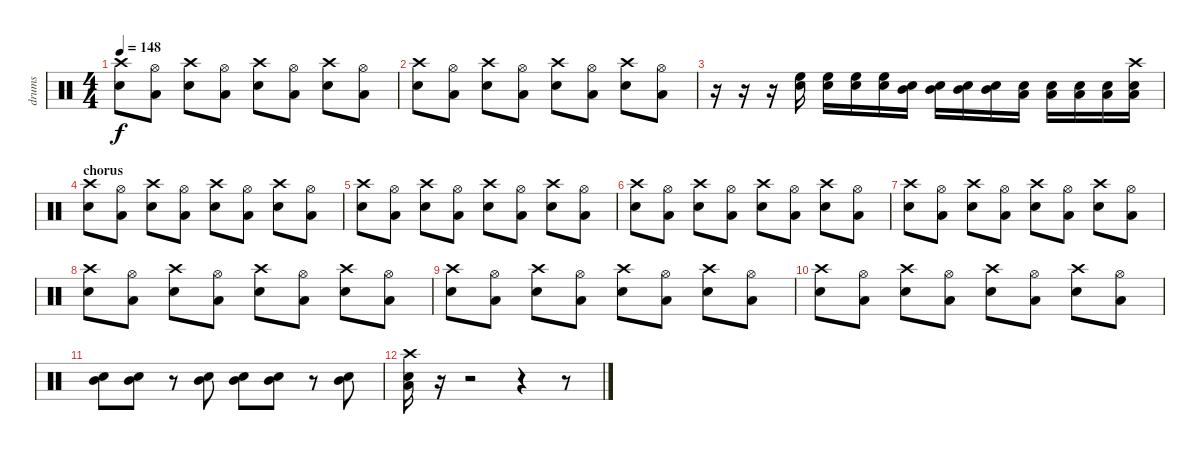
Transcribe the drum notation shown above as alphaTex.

\track ("drums" "drums") {instrument percussion}
\staff {score}
\articulation defaults
\ts (4 4)
\tempo 148
\clef neutral
\ks c
("Crash high (hit)" "Snare (hit) 2").8{dy f} ("Hi-Hat (open)" "Low Tom (hit)").8 ("Crash high (hit)" "Snare (hit) 2").8 ("Hi-Hat (open)" "Low Tom (hit)").8 ("Crash high (hit)" "Snare (hit) 2").8 ("Hi-Hat (open)" "Low Tom (hit)").8 ("Crash high (hit)" "Snare (hit) 2").8 ("Hi-Hat (open)" "Low Tom (hit)").8 |
("Crash high (hit)" "Snare (hit) 2").8 ("Hi-Hat (open)" "Low Tom (hit)").8 ("Crash high (hit)" "Snare (hit) 2").8 ("Hi-Hat (open)" "Low Tom (hit)").8 ("Crash high (hit)" "Snare (hit) 2").8 ("Hi-Hat (open)" "Low Tom (hit)").8 ("Crash high (hit)" "Snare (hit) 2").8 ("Hi-Hat (open)" "Low Tom (hit)").8 |
r.16 r.16 r.16 ("Snare (hit) 2" "High Floor Tom (hit)").16 ("Snare (hit) 2" "High Floor Tom (hit)").16 ("Snare (hit) 2" "High Floor Tom (hit)").16 ("Snare (hit) 2" "High Floor Tom (hit)").16 ("Snare (hit) 2" "Mid Tom (hit)").16 ("Snare (hit) 2" "Mid Tom (hit)").16 ("Snare (hit) 2" "Mid Tom (hit)").16 ("Snare (hit) 2" "Mid Tom (hit)").16 ("Snare (hit) 2" "Low Tom (hit)").16 ("Snare (hit) 2" "Low Tom (hit)").16 ("Snare (hit) 2" "Low Tom (hit)").16 ("Snare (hit) 2" "Low Tom (hit)").16 ("Crash high (hit)" "Snare (hit) 2" "Low Floor Tom (hit)").16 |
\section ("" "chorus")
("Crash high (hit)" "Snare (hit) 2").8 ("Hi-Hat (open)" "Low Tom (hit)").8 ("Crash high (hit)" "Snare (hit) 2").8 ("Hi-Hat (open)" "Low Tom (hit)").8 ("Crash high (hit)" "Snare (hit) 2").8 ("Hi-Hat (open)" "Low Tom (hit)").8 ("Crash high (hit)" "Snare (hit) 2").8 ("Hi-Hat (open)" "Low Tom (hit)").8 |
("Crash high (hit)" "Snare (hit) 2").8 ("Hi-Hat (open)" "Low Tom (hit)").8 ("Crash high (hit)" "Snare (hit) 2").8 ("Hi-Hat (open)" "Low Tom (hit)").8 ("Crash high (hit)" "Snare (hit) 2").8 ("Hi-Hat (open)" "Low Tom (hit)").8 ("Crash high (hit)" "Snare (hit) 2").8 ("Hi-Hat (open)" "Low Tom (hit)").8 |
("Crash high (hit)" "Snare (hit) 2").8 ("Hi-Hat (open)" "Low Tom (hit)").8 ("Crash high (hit)" "Snare (hit) 2").8 ("Hi-Hat (open)" "Low Tom (hit)").8 ("Crash high (hit)" "Snare (hit) 2").8 ("Hi-Hat (open)" "Low Tom (hit)").8 ("Crash high (hit)" "Snare (hit) 2").8 ("Hi-Hat (open)" "Low Tom (hit)").8 |
("Crash high (hit)" "Snare (hit) 2").8 ("Hi-Hat (open)" "Low Tom (hit)").8 ("Crash high (hit)" "Snare (hit) 2").8 ("Hi-Hat (open)" "Low Tom (hit)").8 ("Crash high (hit)" "Snare (hit) 2").8 ("Hi-Hat (open)" "Low Tom (hit)").8 ("Crash high (hit)" "Snare (hit) 2").8 ("Hi-Hat (open)" "Low Tom (hit)").8 |
("Crash high (hit)" "Snare (hit) 2").8 ("Hi-Hat (open)" "Low Tom (hit)").8 ("Crash high (hit)" "Snare (hit) 2").8 ("Hi-Hat (open)" "Low Tom (hit)").8 ("Crash high (hit)" "Snare (hit) 2").8 ("Hi-Hat (open)" "Low Tom (hit)").8 ("Crash high (hit)" "Snare (hit) 2").8 ("Hi-Hat (open)" "Low Tom (hit)").8 |
("Crash high (hit)" "Snare (hit) 2").8 ("Hi-Hat (open)" "Low Tom (hit)").8 ("Crash high (hit)" "Snare (hit) 2").8 ("Hi-Hat (open)" "Low Tom (hit)").8 ("Crash high (hit)" "Snare (hit) 2").8 ("Hi-Hat (open)" "Low Tom (hit)").8 ("Crash high (hit)" "Snare (hit) 2").8 ("Hi-Hat (open)" "Low Tom (hit)").8 |
("Crash high (hit)" "Snare (hit) 2").8 ("Hi-Hat (open)" "Low Tom (hit)").8 ("Crash high (hit)" "Snare (hit) 2").8 ("Hi-Hat (open)" "Low Tom (hit)").8 ("Crash high (hit)" "Snare (hit) 2").8 ("Hi-Hat (open)" "Low Tom (hit)").8 ("Crash high (hit)" "Snare (hit) 2").8 ("Hi-Hat (open)" "Low Tom (hit)").8 |
("Snare (hit) 2" "Mid Tom (hit)").8 ("Snare (hit) 2" "Mid Tom (hit)").8 r.8 ("Mid Tom (hit)" "Snare (hit) 2").8 ("Mid Tom (hit)" "Snare (hit) 2").8 ("Mid Tom (hit)" "Snare (hit) 2").8 r.8 ("Snare (hit) 2" "Mid Tom (hit)").8 |
("Crash high (hit)" "Snare (hit) 2" "Low Floor Tom (hit)").16 r.16 r.2 r.4 r.8
